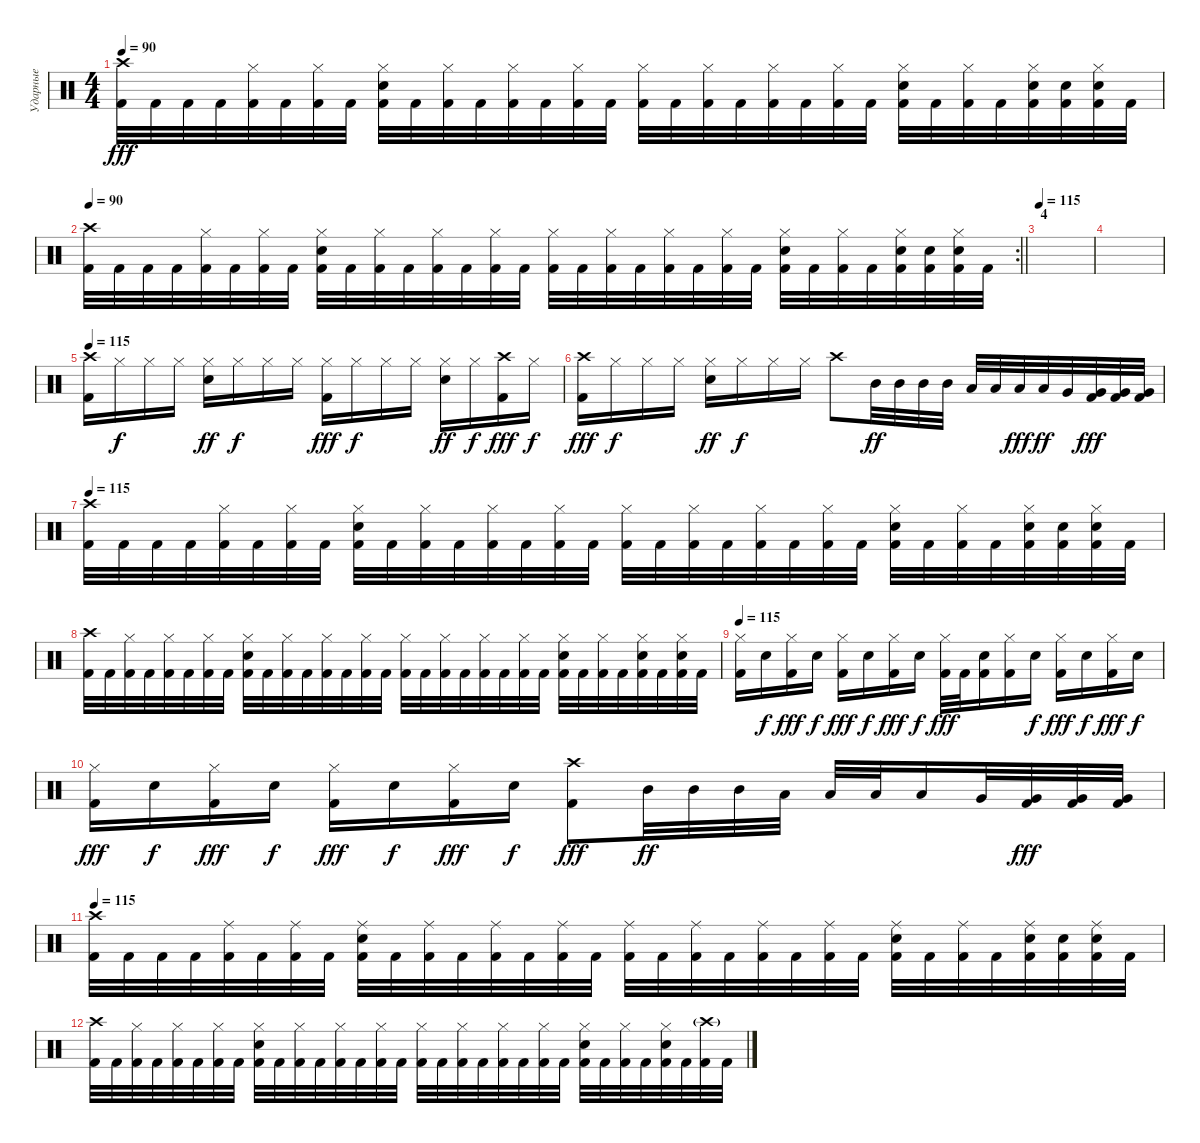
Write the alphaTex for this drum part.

\track ("Ударные" "Ударные") {instrument percussion}
\staff {score}
\articulation defaults
\ts (4 4)
\tempo 90
\clef neutral
\ks c
("Crash high (hit)" "Kick (hit) 2").32{dy fff} "Kick (hit) 2".32 "Kick (hit) 2".32 "Kick (hit) 2".32 ("Hi-Hat (closed)" "Kick (hit) 2").32 "Kick (hit) 2".32 ("Hi-Hat (closed)" "Kick (hit) 2").32 "Kick (hit) 2".32 ("Hi-Hat (closed)" "Snare (hit) 2" "Kick (hit) 2").32 "Kick (hit) 2".32 ("Hi-Hat (closed)" "Kick (hit) 2").32 "Kick (hit) 2".32 ("Hi-Hat (closed)" "Kick (hit) 2").32 "Kick (hit) 2".32 ("Hi-Hat (closed)" "Kick (hit) 2").32 "Kick (hit) 2".32 ("Hi-Hat (closed)" "Kick (hit) 2").32 "Kick (hit) 2".32 ("Hi-Hat (closed)" "Kick (hit) 2").32 "Kick (hit) 2".32 ("Hi-Hat (closed)" "Kick (hit) 2").32 "Kick (hit) 2".32 ("Hi-Hat (closed)" "Kick (hit) 2").32 "Kick (hit) 2".32 ("Hi-Hat (closed)" "Snare (hit) 2" "Kick (hit) 2").32 "Kick (hit) 2".32 ("Hi-Hat (closed)" "Kick (hit) 2").32 "Kick (hit) 2".32 ("Hi-Hat (closed)" "Snare (hit) 2" "Kick (hit) 2").32 ("Snare (hit) 2" "Kick (hit) 2").32 ("Hi-Hat (closed)" "Snare (hit) 2" "Kick (hit) 2").32 "Kick (hit) 2".32 |
\rc 2
\tempo 90
\barLineRight lightlight
("Crash high (hit)" "Kick (hit) 2").32 "Kick (hit) 2".32 "Kick (hit) 2".32 "Kick (hit) 2".32 ("Hi-Hat (closed)" "Kick (hit) 2").32 "Kick (hit) 2".32 ("Hi-Hat (closed)" "Kick (hit) 2").32 "Kick (hit) 2".32 ("Hi-Hat (closed)" "Snare (hit) 2" "Kick (hit) 2").32 "Kick (hit) 2".32 ("Hi-Hat (closed)" "Kick (hit) 2").32 "Kick (hit) 2".32 ("Hi-Hat (closed)" "Kick (hit) 2").32 "Kick (hit) 2".32 ("Hi-Hat (closed)" "Kick (hit) 2").32 "Kick (hit) 2".32 ("Hi-Hat (closed)" "Kick (hit) 2").32 "Kick (hit) 2".32 ("Hi-Hat (closed)" "Kick (hit) 2").32 "Kick (hit) 2".32 ("Hi-Hat (closed)" "Kick (hit) 2").32 "Kick (hit) 2".32 ("Hi-Hat (closed)" "Kick (hit) 2").32 "Kick (hit) 2".32 ("Hi-Hat (closed)" "Snare (hit) 2" "Kick (hit) 2").32 "Kick (hit) 2".32 ("Hi-Hat (closed)" "Kick (hit) 2").32 "Kick (hit) 2".32 ("Hi-Hat (closed)" "Snare (hit) 2" "Kick (hit) 2").32 ("Snare (hit) 2" "Kick (hit) 2").32 ("Hi-Hat (closed)" "Snare (hit) 2" "Kick (hit) 2").32 "Kick (hit) 2".32 |
\section ("" "4")
\tempo 115
|
|
\tempo 115
("Crash high (hit)" "Kick (hit) 2").16 "Hi-Hat (closed)".16{dy f} "Hi-Hat (closed)".16 "Hi-Hat (closed)".16 ("Hi-Hat (closed)" "Snare (hit) 2").16{dy ff} "Hi-Hat (closed)".16{dy f} "Hi-Hat (closed)".16 "Hi-Hat (closed)".16 ("Hi-Hat (closed)" "Kick (hit) 2").16{dy fff} "Hi-Hat (closed)".16{dy f} "Hi-Hat (closed)".16 "Hi-Hat (closed)".16 ("Hi-Hat (closed)" "Snare (hit) 2").16{dy ff} "Hi-Hat (closed)".16{dy f} ("Crash high (hit)" "Kick (hit) 2").16{dy fff} "Hi-Hat (closed)".16{dy f} |
("Crash high (hit)" "Kick (hit) 2").16{dy fff} "Hi-Hat (closed)".16{dy f} "Hi-Hat (closed)".16 "Hi-Hat (closed)".16 ("Hi-Hat (closed)" "Snare (hit) 2").16{dy ff} "Hi-Hat (closed)".16{dy f} "Hi-Hat (closed)".16 "Hi-Hat (closed)".16 "Crash high (hit)".8 "Mid Tom (hit)".32{dy ff} "Mid Tom (hit)".32 "Mid Tom (hit)".32 "Mid Tom (hit)".32 "Low Tom (hit)".32 "Low Tom (hit)".32 "Low Tom (hit)".32{dy fff} "Low Tom (hit)".32{dy ff} "Very Low Tom (hit)".32 ("Very Low Tom (hit)" "Kick (hit) 2").32{dy fff} ("Very Low Tom (hit)" "Kick (hit) 2").32 ("Very Low Tom (hit)" "Kick (hit) 2").32 |
\tempo 115
("Crash high (hit)" "Kick (hit) 2").32 "Kick (hit) 2".32 "Kick (hit) 2".32 "Kick (hit) 2".32 ("Hi-Hat (closed)" "Kick (hit) 2").32 "Kick (hit) 2".32 ("Hi-Hat (closed)" "Kick (hit) 2").32 "Kick (hit) 2".32 ("Hi-Hat (closed)" "Snare (hit) 2" "Kick (hit) 2").32 "Kick (hit) 2".32 ("Hi-Hat (closed)" "Kick (hit) 2").32 "Kick (hit) 2".32 ("Hi-Hat (closed)" "Kick (hit) 2").32 "Kick (hit) 2".32 ("Hi-Hat (closed)" "Kick (hit) 2").32 "Kick (hit) 2".32 ("Hi-Hat (closed)" "Kick (hit) 2").32 "Kick (hit) 2".32 ("Hi-Hat (closed)" "Kick (hit) 2").32 "Kick (hit) 2".32 ("Hi-Hat (closed)" "Kick (hit) 2").32 "Kick (hit) 2".32 ("Hi-Hat (closed)" "Kick (hit) 2").32 "Kick (hit) 2".32 ("Hi-Hat (closed)" "Snare (hit) 2" "Kick (hit) 2").32 "Kick (hit) 2".32 ("Hi-Hat (closed)" "Kick (hit) 2").32 "Kick (hit) 2".32 ("Hi-Hat (closed)" "Snare (hit) 2" "Kick (hit) 2").32 ("Snare (hit) 2" "Kick (hit) 2").32 ("Hi-Hat (closed)" "Snare (hit) 2" "Kick (hit) 2").32 "Kick (hit) 2".32 |
("Crash high (hit)" "Kick (hit) 2").32 "Kick (hit) 2".32 ("Hi-Hat (closed)" "Kick (hit) 2").32 "Kick (hit) 2".32 ("Hi-Hat (closed)" "Kick (hit) 2").32 "Kick (hit) 2".32 ("Hi-Hat (closed)" "Kick (hit) 2").32 "Kick (hit) 2".32 ("Hi-Hat (closed)" "Snare (hit) 2" "Kick (hit) 2").32 "Kick (hit) 2".32 ("Hi-Hat (closed)" "Kick (hit) 2").32 "Kick (hit) 2".32 ("Hi-Hat (closed)" "Kick (hit) 2").32 "Kick (hit) 2".32 ("Hi-Hat (closed)" "Kick (hit) 2").32 "Kick (hit) 2".32 ("Hi-Hat (closed)" "Kick (hit) 2").32 "Kick (hit) 2".32 ("Hi-Hat (closed)" "Kick (hit) 2").32 "Kick (hit) 2".32 ("Hi-Hat (closed)" "Kick (hit) 2").32 "Kick (hit) 2".32 ("Hi-Hat (closed)" "Kick (hit) 2").32 "Kick (hit) 2".32 ("Hi-Hat (closed)" "Snare (hit) 2" "Kick (hit) 2").32 "Kick (hit) 2".32 ("Hi-Hat (closed)" "Kick (hit) 2").32 "Kick (hit) 2".32 ("Hi-Hat (closed)" "Snare (hit) 2" "Kick (hit) 2").32 "Kick (hit) 2".32 ("Hi-Hat (closed)" "Snare (hit) 2" "Kick (hit) 2").32 "Kick (hit) 2".32 |
\tempo 115
("Hi-Hat (closed)" "Kick (hit) 2").16 "Snare (hit) 2".16{dy f} ("Hi-Hat (closed)" "Kick (hit) 2").16{dy fff} "Snare (hit) 2".16{dy f} ("Hi-Hat (closed)" "Kick (hit) 2").16{dy fff} "Snare (hit) 2".16{dy f} ("Hi-Hat (closed)" "Kick (hit) 2").16{dy fff} "Snare (hit) 2".16{dy f} ("Hi-Hat (closed)" "Kick (hit) 2").32{dy fff} "Kick (hit) 2".32 ("Snare (hit) 2" "Kick (hit) 2").16 ("Hi-Hat (closed)" "Kick (hit) 2").16 "Snare (hit) 2".16{dy f} ("Hi-Hat (closed)" "Kick (hit) 2").16{dy fff} "Snare (hit) 2".16{dy f} ("Hi-Hat (closed)" "Kick (hit) 2").16{dy fff} "Snare (hit) 2".16{dy f} |
("Hi-Hat (closed)" "Kick (hit) 2").16{dy fff} "Snare (hit) 2".16{dy f} ("Hi-Hat (closed)" "Kick (hit) 2").16{dy fff} "Snare (hit) 2".16{dy f} ("Hi-Hat (closed)" "Kick (hit) 2").16{dy fff} "Snare (hit) 2".16{dy f} ("Hi-Hat (closed)" "Kick (hit) 2").16{dy fff} "Snare (hit) 2".16{dy f} ("Crash high (hit)" "Kick (hit) 2").8{dy fff} "Mid Tom (hit)".32{dy ff} "Mid Tom (hit)".32 "Mid Tom (hit)".32 "Low Tom (hit)".32 "Low Tom (hit)".32 "Low Tom (hit)".32 "Low Tom (hit)".16 "Very Low Tom (hit)".32 ("Very Low Tom (hit)" "Kick (hit) 2").32{dy fff} ("Very Low Tom (hit)" "Kick (hit) 2").32 ("Very Low Tom (hit)" "Kick (hit) 2").32 |
\tempo 115
("Crash high (hit)" "Kick (hit) 2").32 "Kick (hit) 2".32 "Kick (hit) 2".32 "Kick (hit) 2".32 ("Ride (middle)" "Kick (hit) 2").32 "Kick (hit) 2".32 ("Ride (middle)" "Kick (hit) 2").32 "Kick (hit) 2".32 ("Ride (middle)" "Snare (hit) 2" "Kick (hit) 2").32 "Kick (hit) 2".32 ("Ride (middle)" "Kick (hit) 2").32 "Kick (hit) 2".32 ("Ride (middle)" "Kick (hit) 2").32 "Kick (hit) 2".32 ("Ride (middle)" "Kick (hit) 2").32 "Kick (hit) 2".32 ("Ride (middle)" "Kick (hit) 2").32 "Kick (hit) 2".32 ("Ride (middle)" "Kick (hit) 2").32 "Kick (hit) 2".32 ("Ride (middle)" "Kick (hit) 2").32 "Kick (hit) 2".32 ("Ride (middle)" "Kick (hit) 2").32 "Kick (hit) 2".32 ("Ride (middle)" "Snare (hit) 2" "Kick (hit) 2").32 "Kick (hit) 2".32 ("Ride (middle)" "Kick (hit) 2").32 "Kick (hit) 2".32 ("Ride (middle)" "Snare (hit) 2" "Kick (hit) 2").32 ("Snare (hit) 2" "Kick (hit) 2").32 ("Ride (middle)" "Snare (hit) 2" "Kick (hit) 2").32 "Kick (hit) 2".32 |
("Crash high (hit)" "Kick (hit) 2").32 "Kick (hit) 2".32 ("Hi-Hat (closed)" "Kick (hit) 2").32 "Kick (hit) 2".32 ("Hi-Hat (closed)" "Kick (hit) 2").32 "Kick (hit) 2".32 ("Hi-Hat (closed)" "Kick (hit) 2").32 "Kick (hit) 2".32 ("Hi-Hat (closed)" "Snare (hit) 2" "Kick (hit) 2").32 "Kick (hit) 2".32 ("Hi-Hat (closed)" "Kick (hit) 2").32 "Kick (hit) 2".32 ("Hi-Hat (closed)" "Kick (hit) 2").32 "Kick (hit) 2".32 ("Hi-Hat (closed)" "Kick (hit) 2").32 "Kick (hit) 2".32 ("Hi-Hat (closed)" "Kick (hit) 2").32 "Kick (hit) 2".32 ("Hi-Hat (closed)" "Kick (hit) 2").32 "Kick (hit) 2".32 ("Hi-Hat (closed)" "Kick (hit) 2").32 "Kick (hit) 2".32 ("Hi-Hat (closed)" "Kick (hit) 2").32 "Kick (hit) 2".32 ("Hi-Hat (closed)" "Snare (hit) 2" "Kick (hit) 2").32 "Kick (hit) 2".32 ("Hi-Hat (closed)" "Kick (hit) 2").32 "Kick (hit) 2".32 ("Hi-Hat (closed)" "Snare (hit) 2" "Kick (hit) 2").32 "Kick (hit) 2".32 ("Crash high (hit)"{g} "Kick (hit) 2").32 "Kick (hit) 2".32
